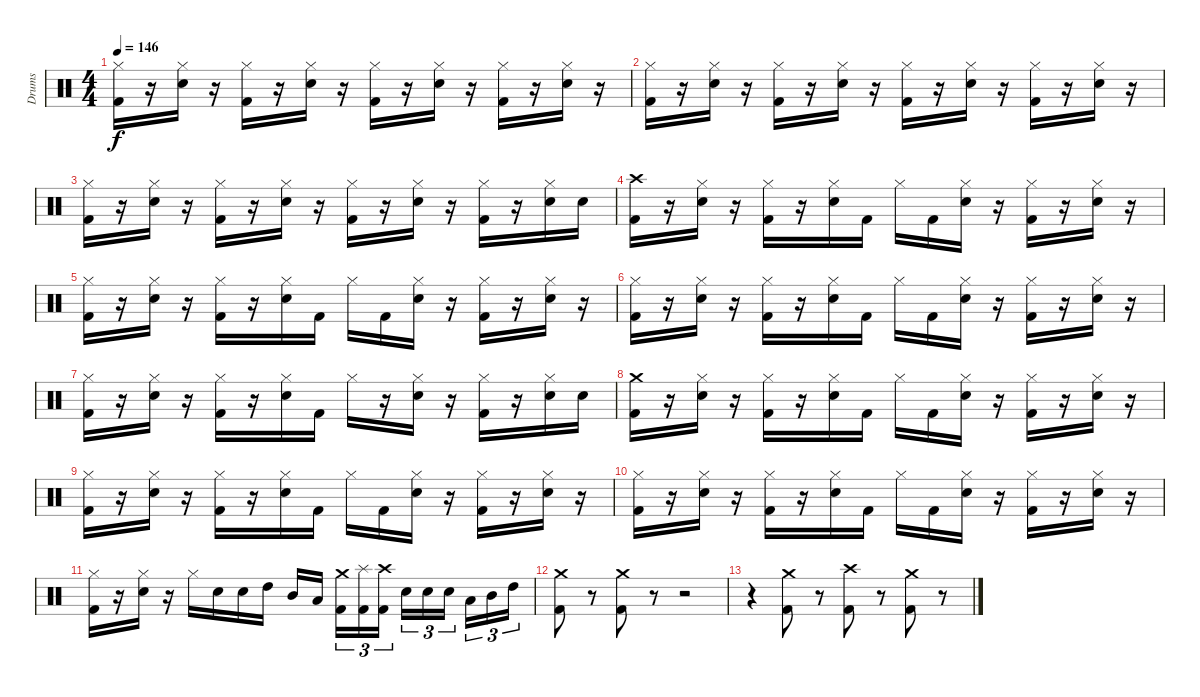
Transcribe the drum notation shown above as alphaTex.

\track ("Drums" "Drums") {instrument percussion}
\staff {score}
\articulation defaults
\ts (4 4)
\tempo 146
\clef neutral
\ks c
("Hi-Hat (closed)" "Kick (hit) 2").16{dy f} r.16 ("Hi-Hat (closed)" "Snare (hit) 2").16 r.16 ("Hi-Hat (closed)" "Kick (hit) 2").16 r.16 ("Hi-Hat (closed)" "Snare (hit) 2").16 r.16 ("Hi-Hat (closed)" "Kick (hit) 2").16 r.16 ("Hi-Hat (closed)" "Snare (hit) 2").16 r.16 ("Hi-Hat (closed)" "Kick (hit) 2").16 r.16 ("Hi-Hat (closed)" "Snare (hit) 2").16 r.16 |
("Hi-Hat (closed)" "Kick (hit) 2").16 r.16 ("Hi-Hat (closed)" "Snare (hit) 2").16 r.16 ("Hi-Hat (closed)" "Kick (hit) 2").16 r.16 ("Hi-Hat (closed)" "Snare (hit) 2").16 r.16 ("Hi-Hat (closed)" "Kick (hit) 2").16 r.16 ("Hi-Hat (closed)" "Snare (hit) 2").16 r.16 ("Hi-Hat (closed)" "Kick (hit) 2").16 r.16 ("Hi-Hat (closed)" "Snare (hit) 2").16 r.16 |
("Hi-Hat (closed)" "Kick (hit) 2").16 r.16 ("Hi-Hat (closed)" "Snare (hit) 2").16 r.16 ("Hi-Hat (closed)" "Kick (hit) 2").16 r.16 ("Hi-Hat (closed)" "Snare (hit) 2").16 r.16 ("Hi-Hat (closed)" "Kick (hit) 2").16 r.16 ("Hi-Hat (closed)" "Snare (hit) 2").16 r.16 ("Hi-Hat (closed)" "Kick (hit) 2").16 r.16 ("Hi-Hat (closed)" "Snare (hit) 2").16 "Snare (hit) 2".16 |
("Crash high (hit)" "Kick (hit) 2").16 r.16 ("Hi-Hat (closed)" "Snare (hit) 2").16 r.16 ("Hi-Hat (closed)" "Kick (hit) 2").16 r.16 ("Hi-Hat (closed)" "Snare (hit) 2").16 "Kick (hit) 2".16 "Hi-Hat (closed)".16 "Kick (hit) 2".16 ("Hi-Hat (closed)" "Snare (hit) 2").16 r.16 ("Hi-Hat (closed)" "Kick (hit) 2").16 r.16 ("Hi-Hat (closed)" "Snare (hit) 2").16 r.16 |
("Hi-Hat (closed)" "Kick (hit) 2").16 r.16 ("Hi-Hat (closed)" "Snare (hit) 2").16 r.16 ("Hi-Hat (closed)" "Kick (hit) 2").16 r.16 ("Hi-Hat (closed)" "Snare (hit) 2").16 "Kick (hit) 2".16 "Hi-Hat (closed)".16 "Kick (hit) 2".16 ("Hi-Hat (closed)" "Snare (hit) 2").16 r.16 ("Hi-Hat (closed)" "Kick (hit) 2").16 r.16 ("Hi-Hat (closed)" "Snare (hit) 2").16 r.16 |
("Hi-Hat (closed)" "Kick (hit) 2").16 r.16 ("Hi-Hat (closed)" "Snare (hit) 2").16 r.16 ("Hi-Hat (closed)" "Kick (hit) 2").16 r.16 ("Hi-Hat (closed)" "Snare (hit) 2").16 "Kick (hit) 2".16 "Hi-Hat (closed)".16 "Kick (hit) 2".16 ("Hi-Hat (closed)" "Snare (hit) 2").16 r.16 ("Hi-Hat (closed)" "Kick (hit) 2").16 r.16 ("Hi-Hat (closed)" "Snare (hit) 2").16 r.16 |
("Hi-Hat (closed)" "Kick (hit) 2").16 r.16 ("Hi-Hat (closed)" "Snare (hit) 2").16 r.16 ("Hi-Hat (closed)" "Kick (hit) 2").16 r.16 ("Hi-Hat (closed)" "Snare (hit) 2").16 "Kick (hit) 2".16 "Hi-Hat (closed)".16 r.16 ("Hi-Hat (closed)" "Snare (hit) 2").16 r.16 ("Hi-Hat (closed)" "Kick (hit) 2").16 r.16 ("Hi-Hat (closed)" "Snare (hit) 2").16 "Snare (hit) 2".16 |
("Crash medium (hit)" "Kick (hit) 2").16 r.16 ("Hi-Hat (closed)" "Snare (hit) 2").16 r.16 ("Hi-Hat (closed)" "Kick (hit) 2").16 r.16 ("Hi-Hat (closed)" "Snare (hit) 2").16 "Kick (hit) 2".16 "Hi-Hat (closed)".16 "Kick (hit) 2".16 ("Hi-Hat (closed)" "Snare (hit) 2").16 r.16 ("Hi-Hat (closed)" "Kick (hit) 2").16 r.16 ("Hi-Hat (closed)" "Snare (hit) 2").16 r.16 |
("Hi-Hat (closed)" "Kick (hit) 2").16 r.16 ("Hi-Hat (closed)" "Snare (hit) 2").16 r.16 ("Hi-Hat (closed)" "Kick (hit) 2").16 r.16 ("Hi-Hat (closed)" "Snare (hit) 2").16 "Kick (hit) 2".16 "Hi-Hat (closed)".16 "Kick (hit) 2".16 ("Hi-Hat (closed)" "Snare (hit) 2").16 r.16 ("Hi-Hat (closed)" "Kick (hit) 2").16 r.16 ("Hi-Hat (closed)" "Snare (hit) 2").16 r.16 |
("Hi-Hat (closed)" "Kick (hit) 2").16 r.16 ("Hi-Hat (closed)" "Snare (hit) 2").16 r.16 ("Hi-Hat (closed)" "Kick (hit) 2").16 r.16 ("Hi-Hat (closed)" "Snare (hit) 2").16 "Kick (hit) 2".16 "Hi-Hat (closed)".16 "Kick (hit) 2".16 ("Hi-Hat (closed)" "Snare (hit) 2").16 r.16 ("Hi-Hat (closed)" "Kick (hit) 2").16 r.16 ("Hi-Hat (closed)" "Snare (hit) 2").16 r.16 |
("Hi-Hat (closed)" "Kick (hit) 2").16 r.16 ("Hi-Hat (closed)" "Snare (hit) 2").16 r.16 "Hi-Hat (closed)".16 "Snare (hit) 2".16 "Snare (hit) 2".16 "High Tom (hit)".16 "Mid Tom (hit)".16 "Low Tom (hit)".16{beam splitsecondary} ("Crash medium (hit)" "Kick (hit) 2").16{tu (3 2)} ("Splash (hit)" "Kick (hit) 2").16{tu (3 2)} ("Crash high (hit)" "Kick (hit) 2").16{tu (3 2)} "Snare (hit) 2".16{tu (3 2)} "Snare (hit) 2".16{tu (3 2)} "Snare (hit) 2".16{tu (3 2) beam splitsecondary} "Low Tom (hit)".16{tu (3 2)} "Mid Tom (hit)".16{tu (3 2)} "High Tom (hit)".16{tu (3 2)} |
("Crash medium (hit)" "Kick (hit) 2").8 r.8 ("Crash medium (hit)" "Kick (hit) 2").8 r.8 r.2 |
r.4 ("Crash medium (hit)" "Kick (hit) 2").8 r.8 ("Crash high (hit)" "Kick (hit) 2").8 r.8 ("Crash medium (hit)" "Kick (hit) 2").8 r.8
